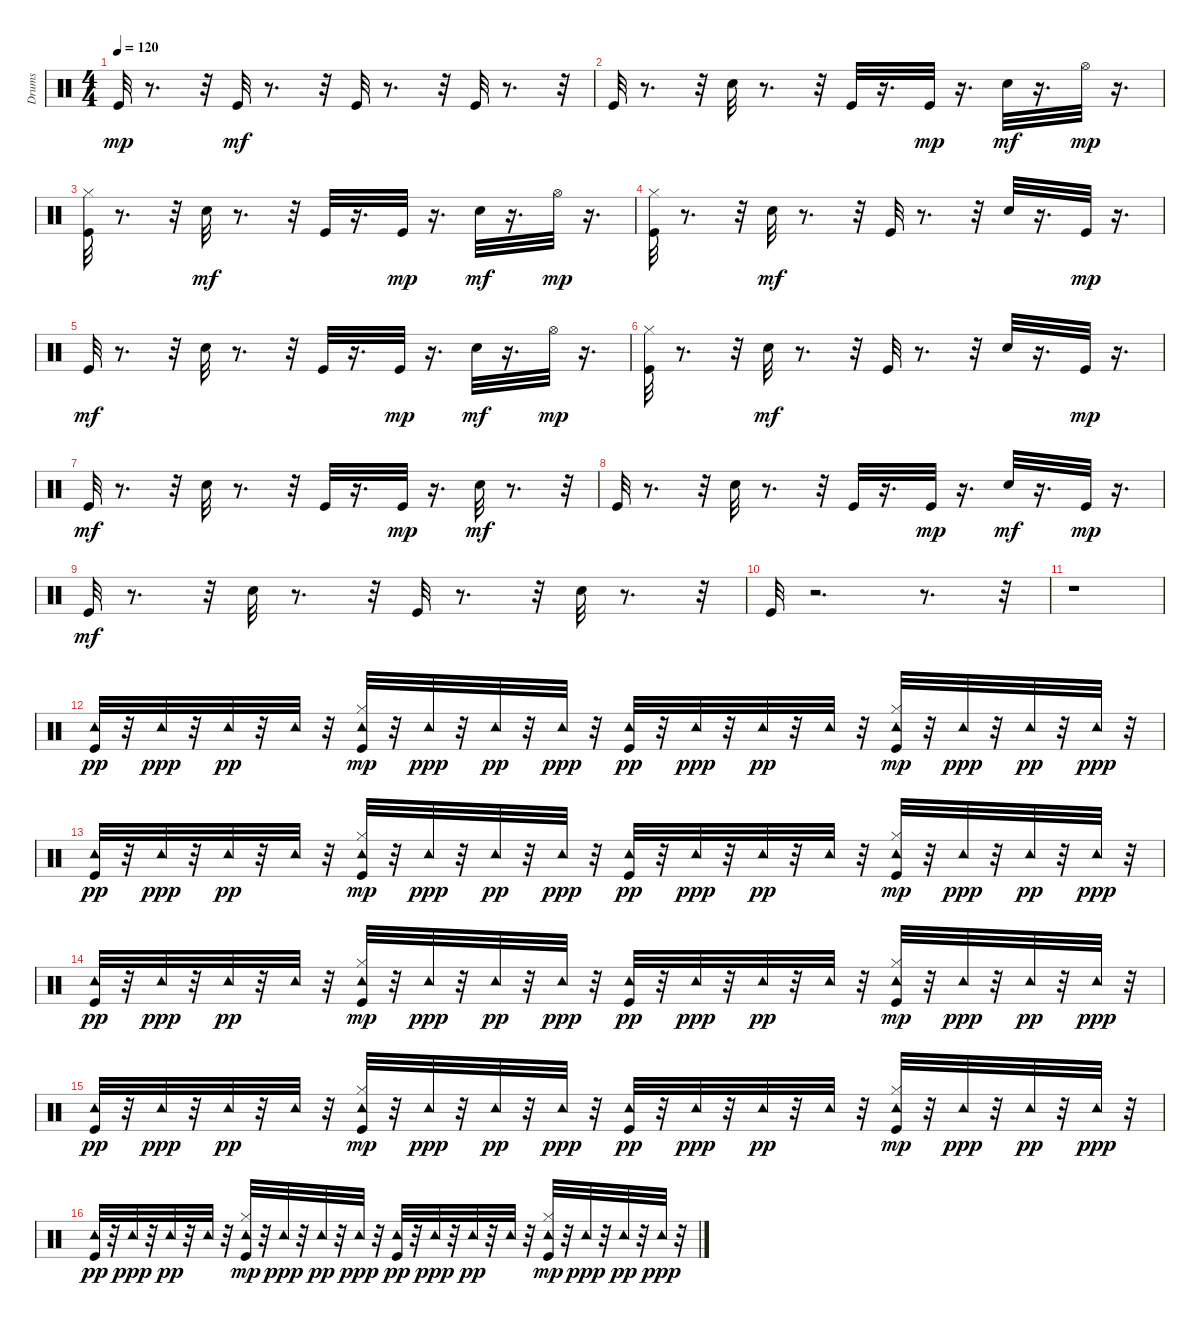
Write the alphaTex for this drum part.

\track ("Drums" "Drums") {instrument percussion}
\staff {score}
\articulation defaults
\ts (4 4)
\tempo 120
\clef neutral
\ks c "Kick (hit)".32{dy mp}
r.8{d} r.32 "Kick (hit)".32{dy mf} r.8{d} r.32 "Kick (hit)".32 r.8{d} r.32 "Kick (hit)".32 r.8{d} r.32 |
"Kick (hit)".32 r.8{d} r.32 "Electric Snare (hit)".32 r.8{d} r.32 "Kick (hit)".32 r.16{d} "Kick (hit)".32{dy mp} r.16{d} "Electric Snare (hit)".32{dy mf} r.16{d} "Hi-Hat (open)".32{dy mp} r.16{d} |
("Kick (hit)" "Hi-Hat (closed)").32 r.8{d} r.32 "Electric Snare (hit)".32{dy mf} r.8{d} r.32 "Kick (hit)".32 r.16{d} "Kick (hit)".32{dy mp} r.16{d} "Electric Snare (hit)".32{dy mf} r.16{d} "Hi-Hat (open)".32{dy mp} r.16{d} |
("Kick (hit)" "Hi-Hat (closed)").32 r.8{d} r.32 "Electric Snare (hit)".32{dy mf} r.8{d} r.32 "Kick (hit)".32 r.8{d} r.32 "Electric Snare (hit)".32 r.16{d} "Kick (hit)".32{dy mp} r.16{d} |
"Kick (hit)".32{dy mf} r.8{d} r.32 "Electric Snare (hit)".32 r.8{d} r.32 "Kick (hit)".32 r.16{d} "Kick (hit)".32{dy mp} r.16{d} "Electric Snare (hit)".32{dy mf} r.16{d} "Hi-Hat (open)".32{dy mp} r.16{d} |
("Kick (hit)" "Hi-Hat (closed)").32 r.8{d} r.32 "Electric Snare (hit)".32{dy mf} r.8{d} r.32 "Kick (hit)".32 r.8{d} r.32 "Electric Snare (hit)".32 r.16{d} "Kick (hit)".32{dy mp} r.16{d} |
"Kick (hit)".32{dy mf} r.8{d} r.32 "Electric Snare (hit)".32 r.8{d} r.32 "Kick (hit)".32 r.16{d} "Kick (hit)".32{dy mp} r.16{d} "Electric Snare (hit)".32{dy mf} r.8{d} r.32 |
"Kick (hit)".32 r.8{d} r.32 "Electric Snare (hit)".32 r.8{d} r.32 "Kick (hit)".32 r.16{d} "Kick (hit)".32{dy mp} r.16{d} "Electric Snare (hit)".32{dy mf} r.16{d} "Kick (hit)".32{dy mp} r.16{d} |
"Kick (hit)".32{dy mf} r.8{d} r.32 "Electric Snare (hit)".32 r.8{d} r.32 "Kick (hit)".32 r.8{d} r.32 "Electric Snare (hit)".32 r.8{d} r.32 |
"Kick (hit)".32 r.2{d} r.8{d} r.32 |
r.1 |
("Kick (hit)" "Tambourine (hit)").32{dy pp} r.32 "Tambourine (hit)".32{dy ppp} r.32 "Tambourine (hit)".32{dy pp} r.32 "Tambourine (hit)".32 r.32 ("Kick (hit)" "Hi-Hat (closed)" "Tambourine (hit)").32{dy mp} r.32 "Tambourine (hit)".32{dy ppp} r.32 "Tambourine (hit)".32{dy pp} r.32 "Tambourine (hit)".32{dy ppp} r.32 ("Kick (hit)" "Tambourine (hit)").32{dy pp} r.32 "Tambourine (hit)".32{dy ppp} r.32 "Tambourine (hit)".32{dy pp} r.32 "Tambourine (hit)".32 r.32 ("Kick (hit)" "Hi-Hat (closed)" "Tambourine (hit)").32{dy mp} r.32 "Tambourine (hit)".32{dy ppp} r.32 "Tambourine (hit)".32{dy pp} r.32 "Tambourine (hit)".32{dy ppp} r.32 |
("Kick (hit)" "Tambourine (hit)").32{dy pp} r.32 "Tambourine (hit)".32{dy ppp} r.32 "Tambourine (hit)".32{dy pp} r.32 "Tambourine (hit)".32 r.32 ("Kick (hit)" "Hi-Hat (closed)" "Tambourine (hit)").32{dy mp} r.32 "Tambourine (hit)".32{dy ppp} r.32 "Tambourine (hit)".32{dy pp} r.32 "Tambourine (hit)".32{dy ppp} r.32 ("Kick (hit)" "Tambourine (hit)").32{dy pp} r.32 "Tambourine (hit)".32{dy ppp} r.32 "Tambourine (hit)".32{dy pp} r.32 "Tambourine (hit)".32 r.32 ("Kick (hit)" "Hi-Hat (closed)" "Tambourine (hit)").32{dy mp} r.32 "Tambourine (hit)".32{dy ppp} r.32 "Tambourine (hit)".32{dy pp} r.32 "Tambourine (hit)".32{dy ppp} r.32 |
("Kick (hit)" "Tambourine (hit)").32{dy pp} r.32 "Tambourine (hit)".32{dy ppp} r.32 "Tambourine (hit)".32{dy pp} r.32 "Tambourine (hit)".32 r.32 ("Kick (hit)" "Hi-Hat (closed)" "Tambourine (hit)").32{dy mp} r.32 "Tambourine (hit)".32{dy ppp} r.32 "Tambourine (hit)".32{dy pp} r.32 "Tambourine (hit)".32{dy ppp} r.32 ("Kick (hit)" "Tambourine (hit)").32{dy pp} r.32 "Tambourine (hit)".32{dy ppp} r.32 "Tambourine (hit)".32{dy pp} r.32 "Tambourine (hit)".32 r.32 ("Kick (hit)" "Hi-Hat (closed)" "Tambourine (hit)").32{dy mp} r.32 "Tambourine (hit)".32{dy ppp} r.32 "Tambourine (hit)".32{dy pp} r.32 "Tambourine (hit)".32{dy ppp} r.32 |
("Kick (hit)" "Tambourine (hit)").32{dy pp} r.32 "Tambourine (hit)".32{dy ppp} r.32 "Tambourine (hit)".32{dy pp} r.32 "Tambourine (hit)".32 r.32 ("Kick (hit)" "Hi-Hat (closed)" "Tambourine (hit)").32{dy mp} r.32 "Tambourine (hit)".32{dy ppp} r.32 "Tambourine (hit)".32{dy pp} r.32 "Tambourine (hit)".32{dy ppp} r.32 ("Kick (hit)" "Tambourine (hit)").32{dy pp} r.32 "Tambourine (hit)".32{dy ppp} r.32 "Tambourine (hit)".32{dy pp} r.32 "Tambourine (hit)".32 r.32 ("Kick (hit)" "Hi-Hat (closed)" "Tambourine (hit)").32{dy mp} r.32 "Tambourine (hit)".32{dy ppp} r.32 "Tambourine (hit)".32{dy pp} r.32 "Tambourine (hit)".32{dy ppp} r.32 |
("Kick (hit)" "Tambourine (hit)").32{dy pp} r.32 "Tambourine (hit)".32{dy ppp} r.32 "Tambourine (hit)".32{dy pp} r.32 "Tambourine (hit)".32 r.32 ("Kick (hit)" "Hi-Hat (closed)" "Tambourine (hit)").32{dy mp} r.32 "Tambourine (hit)".32{dy ppp} r.32 "Tambourine (hit)".32{dy pp} r.32 "Tambourine (hit)".32{dy ppp} r.32 ("Kick (hit)" "Tambourine (hit)").32{dy pp} r.32 "Tambourine (hit)".32{dy ppp} r.32 "Tambourine (hit)".32{dy pp} r.32 "Tambourine (hit)".32 r.32 ("Kick (hit)" "Hi-Hat (closed)" "Tambourine (hit)").32{dy mp} r.32 "Tambourine (hit)".32{dy ppp} r.32 "Tambourine (hit)".32{dy pp} r.32 "Tambourine (hit)".32{dy ppp} r.32
